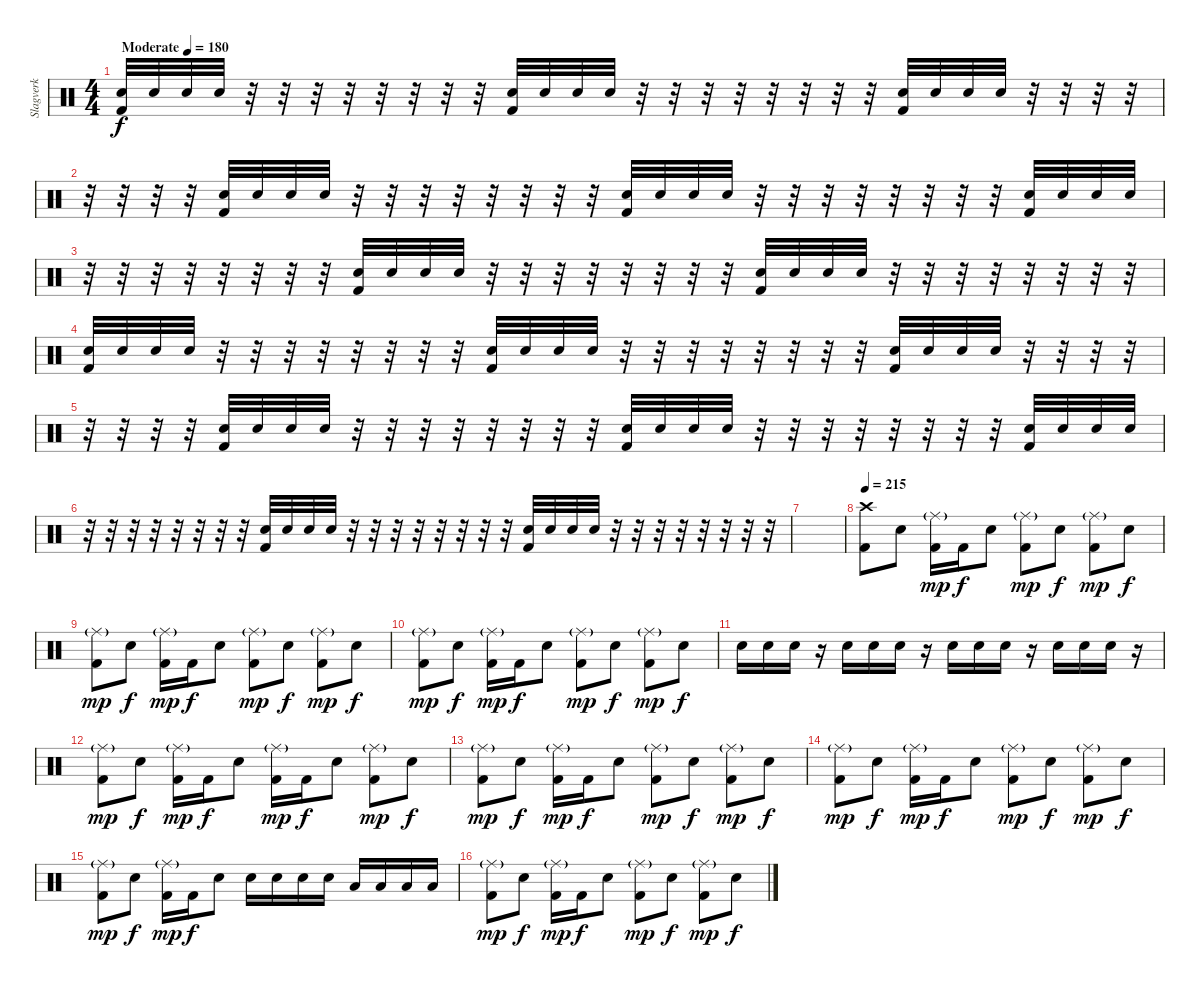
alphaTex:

\track ("Slagverk" "Slagverk") {instrument percussion}
\staff {score}
\articulation defaults
\ts (4 4)
\tempo (180 "Moderate")
\clef neutral
\ks c
("Electric Snare (hit)" "Kick (hit) 2").32{dy f} "Electric Snare (hit)".32 "Electric Snare (hit)".32 "Electric Snare (hit)".32 r.32 r.32 r.32 r.32 r.32 r.32 r.32 r.32 ("Electric Snare (hit)" "Kick (hit) 2").32 "Electric Snare (hit)".32 "Electric Snare (hit)".32 "Electric Snare (hit)".32 r.32 r.32 r.32 r.32 r.32 r.32 r.32 r.32 ("Electric Snare (hit)" "Kick (hit) 2").32 "Electric Snare (hit)".32 "Electric Snare (hit)".32 "Electric Snare (hit)".32 r.32 r.32 r.32 r.32 |
r.32 r.32 r.32 r.32 ("Electric Snare (hit)" "Kick (hit) 2").32 "Electric Snare (hit)".32 "Electric Snare (hit)".32 "Electric Snare (hit)".32 r.32 r.32 r.32 r.32 r.32 r.32 r.32 r.32 ("Electric Snare (hit)" "Kick (hit) 2").32 "Electric Snare (hit)".32 "Electric Snare (hit)".32 "Electric Snare (hit)".32 r.32 r.32 r.32 r.32 r.32 r.32 r.32 r.32 ("Electric Snare (hit)" "Kick (hit) 2").32 "Electric Snare (hit)".32 "Electric Snare (hit)".32 "Electric Snare (hit)".32 |
r.32 r.32 r.32 r.32 r.32 r.32 r.32 r.32 ("Electric Snare (hit)" "Kick (hit) 2").32 "Electric Snare (hit)".32 "Electric Snare (hit)".32 "Electric Snare (hit)".32 r.32 r.32 r.32 r.32 r.32 r.32 r.32 r.32 ("Electric Snare (hit)" "Kick (hit) 2").32 "Electric Snare (hit)".32 "Electric Snare (hit)".32 "Electric Snare (hit)".32 r.32 r.32 r.32 r.32 r.32 r.32 r.32 r.32 |
("Electric Snare (hit)" "Kick (hit) 2").32 "Electric Snare (hit)".32 "Electric Snare (hit)".32 "Electric Snare (hit)".32 r.32 r.32 r.32 r.32 r.32 r.32 r.32 r.32 ("Electric Snare (hit)" "Kick (hit) 2").32 "Electric Snare (hit)".32 "Electric Snare (hit)".32 "Electric Snare (hit)".32 r.32 r.32 r.32 r.32 r.32 r.32 r.32 r.32 ("Electric Snare (hit)" "Kick (hit) 2").32 "Electric Snare (hit)".32 "Electric Snare (hit)".32 "Electric Snare (hit)".32 r.32 r.32 r.32 r.32 |
r.32 r.32 r.32 r.32 ("Electric Snare (hit)" "Kick (hit) 2").32 "Electric Snare (hit)".32 "Electric Snare (hit)".32 "Electric Snare (hit)".32 r.32 r.32 r.32 r.32 r.32 r.32 r.32 r.32 ("Electric Snare (hit)" "Kick (hit) 2").32 "Electric Snare (hit)".32 "Electric Snare (hit)".32 "Electric Snare (hit)".32 r.32 r.32 r.32 r.32 r.32 r.32 r.32 r.32 ("Electric Snare (hit)" "Kick (hit) 2").32 "Electric Snare (hit)".32 "Electric Snare (hit)".32 "Electric Snare (hit)".32 |
r.32 r.32 r.32 r.32 r.32 r.32 r.32 r.32 ("Electric Snare (hit)" "Kick (hit) 2").32 "Electric Snare (hit)".32 "Electric Snare (hit)".32 "Electric Snare (hit)".32 r.32 r.32 r.32 r.32 r.32 r.32 r.32 r.32 ("Electric Snare (hit)" "Kick (hit) 2").32 "Electric Snare (hit)".32 "Electric Snare (hit)".32 "Electric Snare (hit)".32 r.32 r.32 r.32 r.32 r.32 r.32 r.32 r.32 |
|
\tempo 215
("Crash high (hit)" "Kick (hit) 2").8 "Electric Snare (hit)".8 ("Ride (middle)"{g} "Kick (hit) 2").16{dy mp} "Kick (hit) 2".16{dy f} "Electric Snare (hit)".8 ("Ride (middle)"{g} "Kick (hit) 2").8{dy mp} "Electric Snare (hit)".8{dy f} ("Ride (middle)"{g} "Kick (hit) 2").8{dy mp} "Electric Snare (hit)".8{dy f} |
("Ride (middle)"{g} "Kick (hit) 2").8{dy mp} "Electric Snare (hit)".8{dy f} ("Ride (middle)"{g} "Kick (hit) 2").16{dy mp} "Kick (hit) 2".16{dy f} "Electric Snare (hit)".8 ("Ride (middle)"{g} "Kick (hit) 2").8{dy mp} "Electric Snare (hit)".8{dy f} ("Ride (middle)"{g} "Kick (hit) 2").8{dy mp} "Electric Snare (hit)".8{dy f} |
("Ride (middle)"{g} "Kick (hit) 2").8{dy mp} "Electric Snare (hit)".8{dy f} ("Ride (middle)"{g} "Kick (hit) 2").16{dy mp} "Kick (hit) 2".16{dy f} "Electric Snare (hit)".8 ("Ride (middle)"{g} "Kick (hit) 2").8{dy mp} "Electric Snare (hit)".8{dy f} ("Ride (middle)"{g} "Kick (hit) 2").8{dy mp} "Electric Snare (hit)".8{dy f} |
"Electric Snare (hit)".16 "Electric Snare (hit)".16 "Electric Snare (hit)".16 r.16 "Electric Snare (hit)".16 "Electric Snare (hit)".16 "Electric Snare (hit)".16 r.16 "Electric Snare (hit)".16 "Electric Snare (hit)".16 "Electric Snare (hit)".16 r.16 "Electric Snare (hit)".16 "Electric Snare (hit)".16 "Electric Snare (hit)".16 r.16 |
("Ride (middle)"{g} "Kick (hit) 2").8{dy mp} "Electric Snare (hit)".8{dy f} ("Ride (middle)"{g} "Kick (hit) 2").16{dy mp} "Kick (hit) 2".16{dy f} "Electric Snare (hit)".8 ("Ride (middle)"{g} "Kick (hit) 2").16{dy mp} "Kick (hit) 2".16{dy f} "Electric Snare (hit)".8 ("Ride (middle)"{g} "Kick (hit) 2").8{dy mp} "Electric Snare (hit)".8{dy f} |
("Ride (middle)"{g} "Kick (hit) 2").8{dy mp} "Electric Snare (hit)".8{dy f} ("Ride (middle)"{g} "Kick (hit) 2").16{dy mp} "Kick (hit) 2".16{dy f} "Electric Snare (hit)".8 ("Ride (middle)"{g} "Kick (hit) 2").8{dy mp} "Electric Snare (hit)".8{dy f} ("Ride (middle)"{g} "Kick (hit) 2").8{dy mp} "Electric Snare (hit)".8{dy f} |
("Ride (middle)"{g} "Kick (hit) 2").8{dy mp} "Electric Snare (hit)".8{dy f} ("Ride (middle)"{g} "Kick (hit) 2").16{dy mp} "Kick (hit) 2".16{dy f} "Electric Snare (hit)".8 ("Ride (middle)"{g} "Kick (hit) 2").8{dy mp} "Electric Snare (hit)".8{dy f} ("Ride (middle)"{g} "Kick (hit) 2").8{dy mp} "Electric Snare (hit)".8{dy f} |
("Ride (middle)"{g} "Kick (hit) 2").8{dy mp} "Electric Snare (hit)".8{dy f} ("Ride (middle)"{g} "Kick (hit) 2").16{dy mp} "Kick (hit) 2".16{dy f} "Electric Snare (hit)".8 "Electric Snare (hit)".16 "Electric Snare (hit)".16 "Electric Snare (hit)".16 "Electric Snare (hit)".16 "Low Tom (hit)".16 "Low Tom (hit)".16 "Low Tom (hit)".16 "Low Tom (hit)".16 |
("Ride (middle)"{g} "Kick (hit) 2").8{dy mp} "Electric Snare (hit)".8{dy f} ("Ride (middle)"{g} "Kick (hit) 2").16{dy mp} "Kick (hit) 2".16{dy f} "Electric Snare (hit)".8 ("Ride (middle)"{g} "Kick (hit) 2").8{dy mp} "Electric Snare (hit)".8{dy f} ("Ride (middle)"{g} "Kick (hit) 2").8{dy mp} "Electric Snare (hit)".8{dy f}
